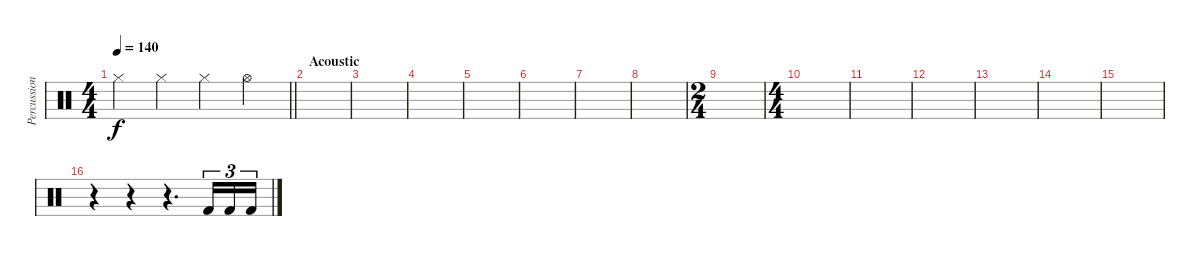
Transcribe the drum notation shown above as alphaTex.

\track ("Percussion" "Percussion") {instrument percussion}
\staff {score}
\articulation defaults
\ts (4 4)
\tempo 140
\clef neutral
\barLineRight lightlight
\ks c "Hi-Hat (closed)".4{dy f} "Hi-Hat (closed)".4 "Hi-Hat (closed)".4 "Hi-Hat (open)".4
|
\section ("" "Acoustic")
|
|
|
|
|
|
|
\ts (2 4)
|
\ts (4 4)
|
|
|
|
|
|
r.4 r.4 r.4{d} "Kick (hit) 2".16{tu (3 2)} "Kick (hit) 2".16{tu (3 2)} "Kick (hit) 2".16{tu (3 2)}
